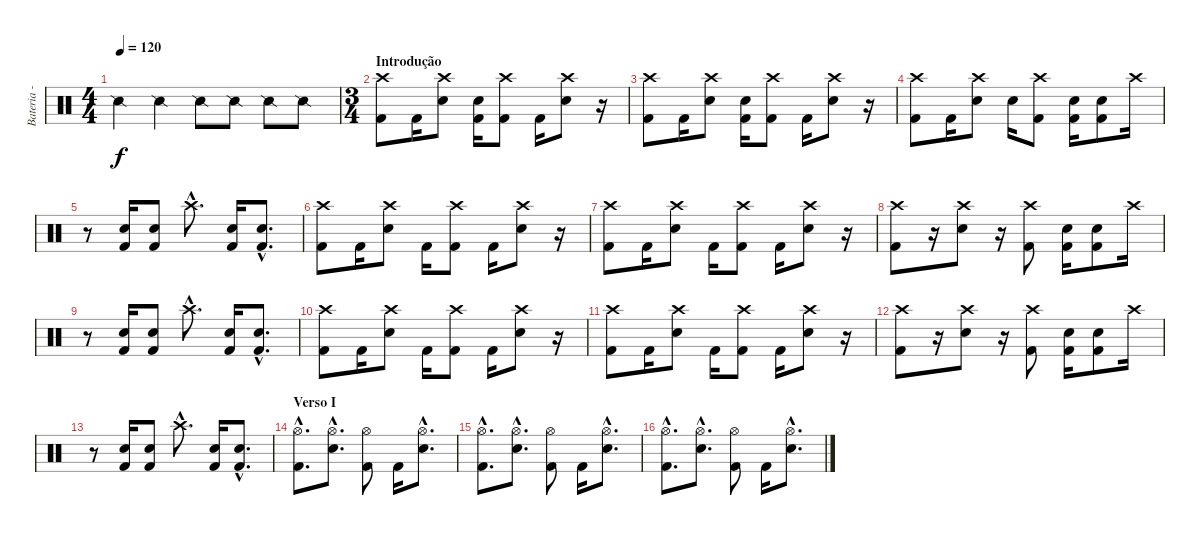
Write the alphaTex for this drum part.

\track ("Bateria - Larzon" "Bateria - ") {instrument percussion}
\staff {score}
\articulation defaults
\ts (4 4)
\tempo 120
\clef neutral
\ks c "Snare (side stick) 2".4{dy f} "Snare (side stick) 2".4 "Snare (side stick) 2".8 "Snare (side stick) 2".8 "Snare (side stick) 2".8 "Snare (side stick) 2".8
|
\ts (3 4)
\section ("" "Introdução")
("Kick (hit) 2" "Crash high (hit)").8 "Kick (hit) 2".16 ("Snare (hit) 2" "Crash high (hit)").8 ("Kick (hit) 2" "Snare (hit) 2").16 ("Kick (hit) 2" "Crash high (hit)").8 "Kick (hit) 2".16 ("Snare (hit) 2" "Crash high (hit)").8 r.16 |
("Kick (hit) 2" "Crash high (hit)").8 "Kick (hit) 2".16 ("Snare (hit) 2" "Crash high (hit)").8 ("Kick (hit) 2" "Snare (hit) 2").16 ("Kick (hit) 2" "Crash high (hit)").8 "Kick (hit) 2".16 ("Snare (hit) 2" "Crash high (hit)").8 r.16 |
("Kick (hit) 2" "Crash high (hit)").8 "Kick (hit) 2".16 ("Snare (hit) 2" "Crash high (hit)").8 "Snare (hit) 2".16 ("Kick (hit) 2" "Crash high (hit)").8 ("Snare (hit) 2" "Kick (hit) 2").16 ("Snare (hit) 2" "Kick (hit) 2").8 "Crash high (hit)".16 |
r.8 ("Snare (hit) 2" "Kick (hit) 2").16 ("Snare (hit) 2" "Kick (hit) 2").8 "Crash high (hit)"{hac}.8{d} ("Snare (hit) 2" "Kick (hit) 2").16 ("Snare (hit) 2"{hac} "Kick (hit) 2"{hac}).8{d} |
("Kick (hit) 2" "Crash high (hit)").8 "Kick (hit) 2".16 ("Snare (hit) 2" "Crash high (hit)").8 "Kick (hit) 2".16 ("Kick (hit) 2" "Crash high (hit)").8 "Kick (hit) 2".16 ("Snare (hit) 2" "Crash high (hit)").8 r.16 |
("Kick (hit) 2" "Crash high (hit)").8 "Kick (hit) 2".16 ("Snare (hit) 2" "Crash high (hit)").8 "Kick (hit) 2".16 ("Kick (hit) 2" "Crash high (hit)").8 "Kick (hit) 2".16 ("Snare (hit) 2" "Crash high (hit)").8 r.16 |
("Kick (hit) 2" "Crash high (hit)").8 r.16 ("Snare (hit) 2" "Crash high (hit)").8 r.16 ("Kick (hit) 2" "Crash high (hit)").8 ("Snare (hit) 2" "Kick (hit) 2").16 ("Snare (hit) 2" "Kick (hit) 2").8 "Crash high (hit)".16 |
r.8 ("Snare (hit) 2" "Kick (hit) 2").16 ("Snare (hit) 2" "Kick (hit) 2").8 "Crash high (hit)"{hac}.8{d} ("Snare (hit) 2" "Kick (hit) 2").16 ("Snare (hit) 2"{hac} "Kick (hit) 2"{hac}).8{d} |
("Kick (hit) 2" "Crash high (hit)").8 "Kick (hit) 2".16 ("Snare (hit) 2" "Crash high (hit)").8 "Kick (hit) 2".16 ("Kick (hit) 2" "Crash high (hit)").8 "Kick (hit) 2".16 ("Snare (hit) 2" "Crash high (hit)").8 r.16 |
("Kick (hit) 2" "Crash high (hit)").8 "Kick (hit) 2".16 ("Snare (hit) 2" "Crash high (hit)").8 "Kick (hit) 2".16 ("Kick (hit) 2" "Crash high (hit)").8 "Kick (hit) 2".16 ("Snare (hit) 2" "Crash high (hit)").8 r.16 |
("Kick (hit) 2" "Crash high (hit)").8 r.16 ("Snare (hit) 2" "Crash high (hit)").8 r.16 ("Kick (hit) 2" "Crash high (hit)").8 ("Snare (hit) 2" "Kick (hit) 2").16 ("Snare (hit) 2" "Kick (hit) 2").8 "Crash high (hit)".16 |
r.8 ("Snare (hit) 2" "Kick (hit) 2").16 ("Snare (hit) 2" "Kick (hit) 2").8 "Crash high (hit)"{hac}.8{d} ("Snare (hit) 2" "Kick (hit) 2").16 ("Snare (hit) 2"{hac} "Kick (hit) 2"{hac}).8{d} |
\section ("" "Verso I")
("Kick (hit) 2"{hac} "Hi-Hat (open)"{hac}).8{d} ("Snare (hit) 2"{hac} "Hi-Hat (open)"{hac}).8{d} ("Kick (hit) 2" "Hi-Hat (open)").8 "Kick (hit) 2".16 ("Snare (hit) 2"{hac} "Hi-Hat (open)"{hac}).8{d} |
("Kick (hit) 2"{hac} "Hi-Hat (open)"{hac}).8{d} ("Snare (hit) 2"{hac} "Hi-Hat (open)"{hac}).8{d} ("Kick (hit) 2" "Hi-Hat (open)").8 "Kick (hit) 2".16 ("Snare (hit) 2"{hac} "Hi-Hat (open)"{hac}).8{d} |
("Kick (hit) 2"{hac} "Hi-Hat (open)"{hac}).8{d} ("Snare (hit) 2"{hac} "Hi-Hat (open)"{hac}).8{d} ("Kick (hit) 2" "Hi-Hat (open)").8 "Kick (hit) 2".16 ("Snare (hit) 2"{hac} "Hi-Hat (open)"{hac}).8{d}
